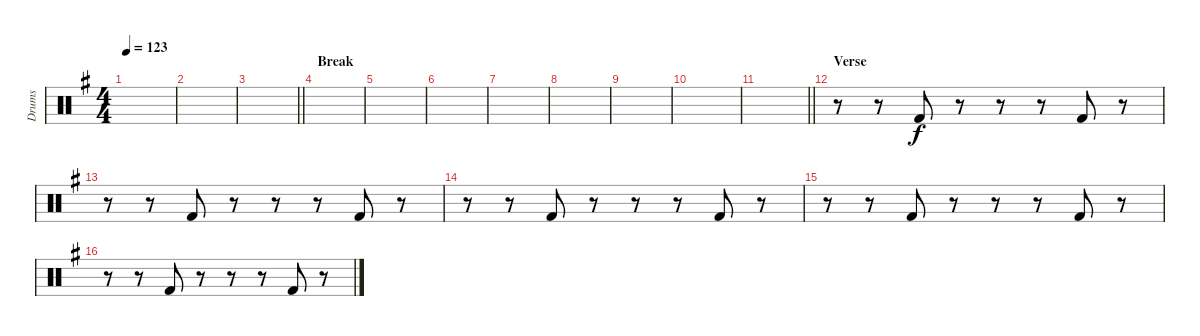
\track ("Drums" "Drums") {instrument percussion}
\staff {score}
\articulation defaults
\ts (4 4)
\tempo 123
\clef neutral
\ks g
|
|
\barLineRight lightlight
|
\section ("" "Break")
|
|
|
|
|
|
|
\barLineRight lightlight
|
\section ("" "Verse")
r.8 r.8 "Kick (hit) 2".8 r.8 r.8 r.8 "Kick (hit) 2".8 r.8 |
r.8 r.8 "Kick (hit) 2".8 r.8 r.8 r.8 "Kick (hit) 2".8 r.8 |
r.8 r.8 "Kick (hit) 2".8 r.8 r.8 r.8 "Kick (hit) 2".8 r.8 |
r.8 r.8 "Kick (hit) 2".8 r.8 r.8 r.8 "Kick (hit) 2".8 r.8 |
r.8 r.8 "Kick (hit) 2".8 r.8 r.8 r.8 "Kick (hit) 2".8 r.8
